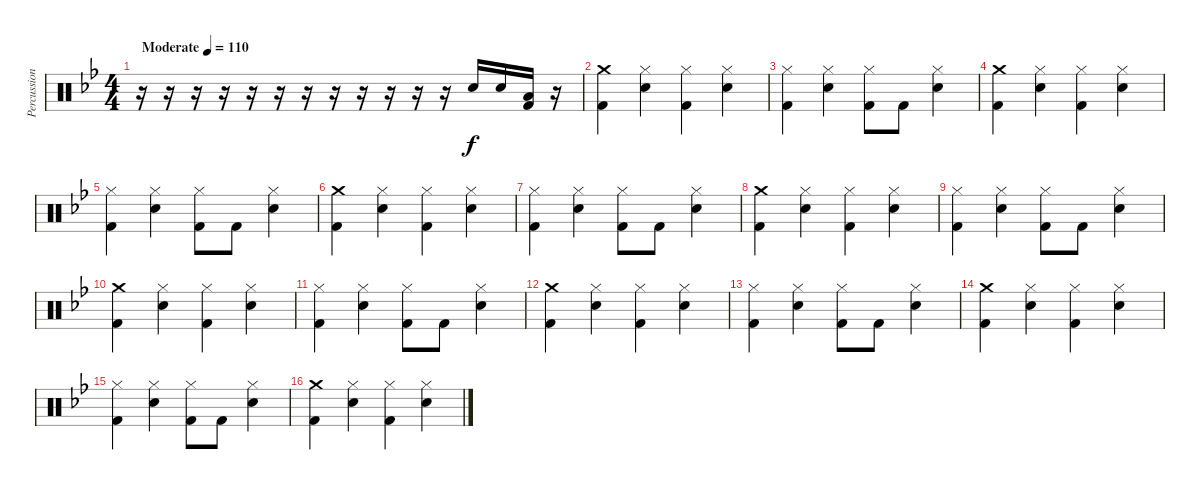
\track ("Percussion" "Percussion") {instrument percussion}
\staff {score}
\articulation defaults
\ts (4 4)
\tempo (110 "Moderate")
\clef neutral
\ks gminor
r.16{dy f} r.16 r.16 r.16 r.16 r.16 r.16 r.16 r.16 r.16 r.16 r.16 "Electric Snare (hit)".16 "Electric Snare (hit)".16 ("Low Tom (hit)" "Kick (hit) 2").16 r.16 |
("Crash medium (hit)" "Kick (hit) 2").4 ("Hi-Hat (closed)" "Electric Snare (hit)").4 ("Hi-Hat (closed)" "Kick (hit) 2").4 ("Hi-Hat (closed)" "Electric Snare (hit)").4 |
("Hi-Hat (closed)" "Kick (hit) 2").4 ("Hi-Hat (closed)" "Electric Snare (hit)").4 ("Hi-Hat (closed)" "Kick (hit) 2").8 "Kick (hit) 2".8 ("Hi-Hat (closed)" "Electric Snare (hit)").4 |
("Crash medium (hit)" "Kick (hit) 2").4 ("Hi-Hat (closed)" "Electric Snare (hit)").4 ("Hi-Hat (closed)" "Kick (hit) 2").4 ("Hi-Hat (closed)" "Electric Snare (hit)").4 |
("Hi-Hat (closed)" "Kick (hit) 2").4 ("Hi-Hat (closed)" "Electric Snare (hit)").4 ("Hi-Hat (closed)" "Kick (hit) 2").8 "Kick (hit) 2".8 ("Hi-Hat (closed)" "Electric Snare (hit)").4 |
("Crash medium (hit)" "Kick (hit) 2").4 ("Hi-Hat (closed)" "Electric Snare (hit)").4 ("Hi-Hat (closed)" "Kick (hit) 2").4 ("Hi-Hat (closed)" "Electric Snare (hit)").4 |
("Hi-Hat (closed)" "Kick (hit) 2").4 ("Hi-Hat (closed)" "Electric Snare (hit)").4 ("Hi-Hat (closed)" "Kick (hit) 2").8 "Kick (hit) 2".8 ("Hi-Hat (closed)" "Electric Snare (hit)").4 |
("Crash medium (hit)" "Kick (hit) 2").4 ("Hi-Hat (closed)" "Electric Snare (hit)").4 ("Hi-Hat (closed)" "Kick (hit) 2").4 ("Hi-Hat (closed)" "Electric Snare (hit)").4 |
("Hi-Hat (closed)" "Kick (hit) 2").4 ("Hi-Hat (closed)" "Electric Snare (hit)").4 ("Hi-Hat (closed)" "Kick (hit) 2").8 "Kick (hit) 2".8 ("Hi-Hat (closed)" "Electric Snare (hit)").4 |
("Crash medium (hit)" "Kick (hit) 2").4 ("Hi-Hat (closed)" "Electric Snare (hit)").4 ("Hi-Hat (closed)" "Kick (hit) 2").4 ("Hi-Hat (closed)" "Electric Snare (hit)").4 |
("Hi-Hat (closed)" "Kick (hit) 2").4 ("Hi-Hat (closed)" "Electric Snare (hit)").4 ("Hi-Hat (closed)" "Kick (hit) 2").8 "Kick (hit) 2".8 ("Hi-Hat (closed)" "Electric Snare (hit)").4 |
("Crash medium (hit)" "Kick (hit) 2").4 ("Hi-Hat (closed)" "Electric Snare (hit)").4 ("Hi-Hat (closed)" "Kick (hit) 2").4 ("Hi-Hat (closed)" "Electric Snare (hit)").4 |
("Hi-Hat (closed)" "Kick (hit) 2").4 ("Hi-Hat (closed)" "Electric Snare (hit)").4 ("Hi-Hat (closed)" "Kick (hit) 2").8 "Kick (hit) 2".8 ("Hi-Hat (closed)" "Electric Snare (hit)").4 |
("Crash medium (hit)" "Kick (hit) 2").4 ("Hi-Hat (closed)" "Electric Snare (hit)").4 ("Hi-Hat (closed)" "Kick (hit) 2").4 ("Hi-Hat (closed)" "Electric Snare (hit)").4 |
("Hi-Hat (closed)" "Kick (hit) 2").4 ("Hi-Hat (closed)" "Electric Snare (hit)").4 ("Hi-Hat (closed)" "Kick (hit) 2").8 "Kick (hit) 2".8 ("Hi-Hat (closed)" "Electric Snare (hit)").4 |
("Crash medium (hit)" "Kick (hit) 2").4 ("Hi-Hat (closed)" "Electric Snare (hit)").4 ("Hi-Hat (closed)" "Kick (hit) 2").4 ("Hi-Hat (closed)" "Electric Snare (hit)").4
